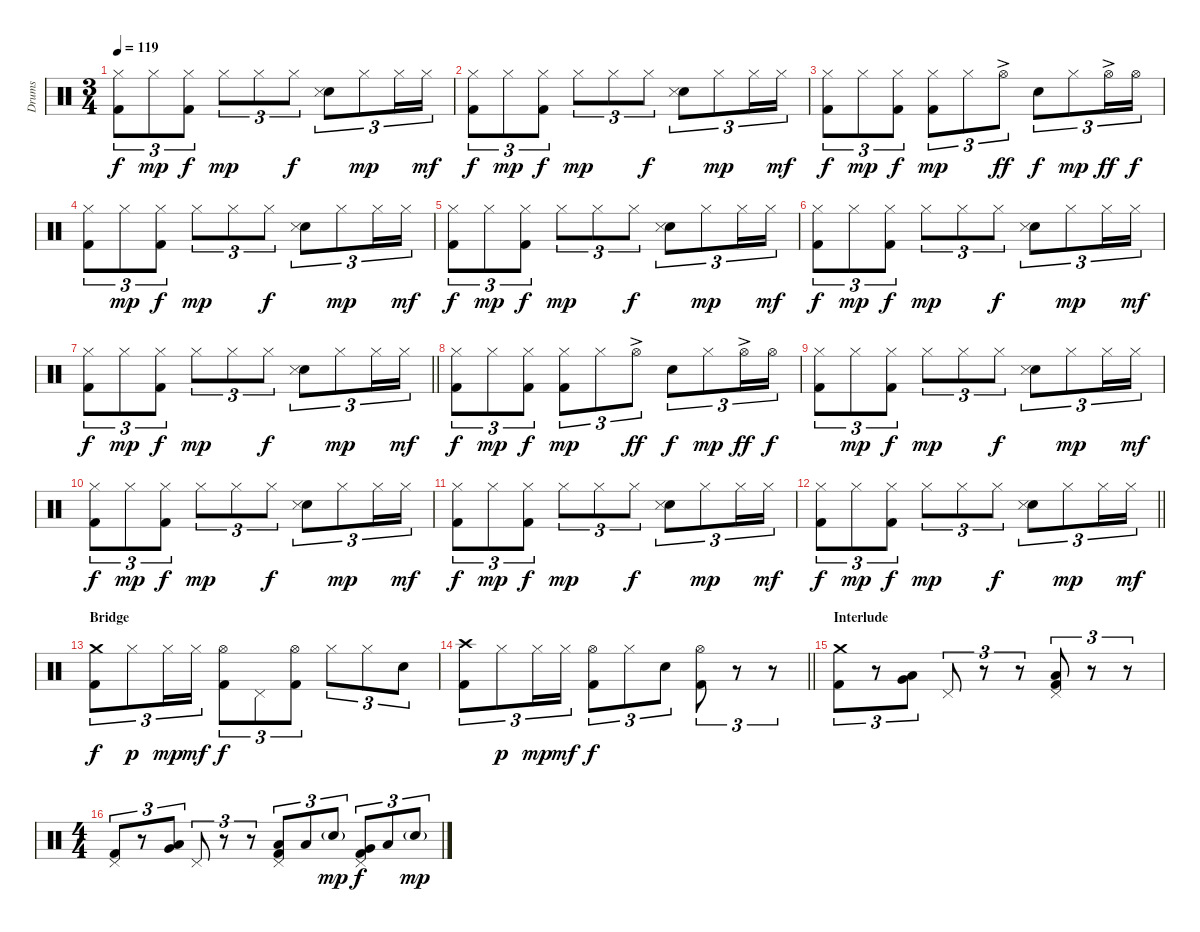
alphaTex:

\track ("Drums" "Drums") {instrument percussion}
\staff {score}
\articulation defaults
\ts (3 4)
\tempo 119
\clef neutral
\ks c
("Hi-Hat (closed)" "Kick (hit) 2").8{tu (3 2) dy f} "Hi-Hat (closed)".8{tu (3 2) dy mp} ("Hi-Hat (closed)" "Kick (hit) 2").8{tu (3 2) dy f} "Hi-Hat (closed)".8{tu (3 2) dy mp} "Hi-Hat (closed)".8{tu (3 2)} "Hi-Hat (closed)".8{tu (3 2) dy f} ("Electric Snare (hit)" "Snare (side stick) 3").8{tu (3 2)} "Hi-Hat (closed)".8{tu (3 2) dy mp} "Hi-Hat (closed)".16{tu (3 2)} "Hi-Hat (closed)".16{tu (3 2) dy mf} |
("Hi-Hat (closed)" "Kick (hit) 2").8{tu (3 2) dy f} "Hi-Hat (closed)".8{tu (3 2) dy mp} ("Hi-Hat (closed)" "Kick (hit) 2").8{tu (3 2) dy f} "Hi-Hat (closed)".8{tu (3 2) dy mp} "Hi-Hat (closed)".8{tu (3 2)} "Hi-Hat (closed)".8{tu (3 2) dy f} ("Electric Snare (hit)" "Snare (side stick) 3").8{tu (3 2)} "Hi-Hat (closed)".8{tu (3 2) dy mp} "Hi-Hat (closed)".16{tu (3 2)} "Hi-Hat (closed)".16{tu (3 2) dy mf} |
("Hi-Hat (closed)" "Kick (hit) 2").8{tu (3 2) dy f} "Hi-Hat (closed)".8{tu (3 2) dy mp} ("Hi-Hat (closed)" "Kick (hit) 2").8{tu (3 2) dy f} ("Hi-Hat (closed)" "Kick (hit) 2").8{tu (3 2) dy mp} "Hi-Hat (closed)".8{tu (3 2)} "Hi-Hat (open)"{ac}.8{tu (3 2) dy ff} "Electric Snare (hit)".8{tu (3 2) dy f} "Hi-Hat (closed)".8{tu (3 2) dy mp} "Hi-Hat (open)"{ac}.16{tu (3 2) dy ff} "Hi-Hat (open)".16{tu (3 2) dy f} |
("Hi-Hat (closed)" "Kick (hit) 2").8{tu (3 2)} "Hi-Hat (closed)".8{tu (3 2) dy mp} ("Hi-Hat (closed)" "Kick (hit) 2").8{tu (3 2) dy f} "Hi-Hat (closed)".8{tu (3 2) dy mp} "Hi-Hat (closed)".8{tu (3 2)} "Hi-Hat (closed)".8{tu (3 2) dy f} ("Electric Snare (hit)" "Snare (side stick) 3").8{tu (3 2)} "Hi-Hat (closed)".8{tu (3 2) dy mp} "Hi-Hat (closed)".16{tu (3 2)} "Hi-Hat (closed)".16{tu (3 2) dy mf} |
("Hi-Hat (closed)" "Kick (hit) 2").8{tu (3 2) dy f} "Hi-Hat (closed)".8{tu (3 2) dy mp} ("Hi-Hat (closed)" "Kick (hit) 2").8{tu (3 2) dy f} "Hi-Hat (closed)".8{tu (3 2) dy mp} "Hi-Hat (closed)".8{tu (3 2)} "Hi-Hat (closed)".8{tu (3 2) dy f} ("Electric Snare (hit)" "Snare (side stick) 3").8{tu (3 2)} "Hi-Hat (closed)".8{tu (3 2) dy mp} "Hi-Hat (closed)".16{tu (3 2)} "Hi-Hat (closed)".16{tu (3 2) dy mf} |
("Hi-Hat (closed)" "Kick (hit) 2").8{tu (3 2) dy f} "Hi-Hat (closed)".8{tu (3 2) dy mp} ("Hi-Hat (closed)" "Kick (hit) 2").8{tu (3 2) dy f} "Hi-Hat (closed)".8{tu (3 2) dy mp} "Hi-Hat (closed)".8{tu (3 2)} "Hi-Hat (closed)".8{tu (3 2) dy f} ("Electric Snare (hit)" "Snare (side stick) 3").8{tu (3 2)} "Hi-Hat (closed)".8{tu (3 2) dy mp} "Hi-Hat (closed)".16{tu (3 2)} "Hi-Hat (closed)".16{tu (3 2) dy mf} |
\barLineRight lightlight
("Hi-Hat (closed)" "Kick (hit) 2").8{tu (3 2) dy f} "Hi-Hat (closed)".8{tu (3 2) dy mp} ("Hi-Hat (closed)" "Kick (hit) 2").8{tu (3 2) dy f} "Hi-Hat (closed)".8{tu (3 2) dy mp} "Hi-Hat (closed)".8{tu (3 2)} "Hi-Hat (closed)".8{tu (3 2) dy f} ("Electric Snare (hit)" "Snare (side stick) 3").8{tu (3 2)} "Hi-Hat (closed)".8{tu (3 2) dy mp} "Hi-Hat (closed)".16{tu (3 2)} "Hi-Hat (closed)".16{tu (3 2) dy mf} |
("Hi-Hat (closed)" "Kick (hit) 2").8{tu (3 2) dy f} "Hi-Hat (closed)".8{tu (3 2) dy mp} ("Hi-Hat (closed)" "Kick (hit) 2").8{tu (3 2) dy f} ("Hi-Hat (closed)" "Kick (hit) 2").8{tu (3 2) dy mp} "Hi-Hat (closed)".8{tu (3 2)} "Hi-Hat (open)"{ac}.8{tu (3 2) dy ff} "Electric Snare (hit)".8{tu (3 2) dy f} "Hi-Hat (closed)".8{tu (3 2) dy mp} "Hi-Hat (open)"{ac}.16{tu (3 2) dy ff} "Hi-Hat (open)".16{tu (3 2) dy f} |
("Hi-Hat (closed)" "Kick (hit) 2").8{tu (3 2)} "Hi-Hat (closed)".8{tu (3 2) dy mp} ("Hi-Hat (closed)" "Kick (hit) 2").8{tu (3 2) dy f} "Hi-Hat (closed)".8{tu (3 2) dy mp} "Hi-Hat (closed)".8{tu (3 2)} "Hi-Hat (closed)".8{tu (3 2) dy f} ("Electric Snare (hit)" "Snare (side stick) 3").8{tu (3 2)} "Hi-Hat (closed)".8{tu (3 2) dy mp} "Hi-Hat (closed)".16{tu (3 2)} "Hi-Hat (closed)".16{tu (3 2) dy mf} |
("Hi-Hat (closed)" "Kick (hit) 2").8{tu (3 2) dy f} "Hi-Hat (closed)".8{tu (3 2) dy mp} ("Hi-Hat (closed)" "Kick (hit) 2").8{tu (3 2) dy f} "Hi-Hat (closed)".8{tu (3 2) dy mp} "Hi-Hat (closed)".8{tu (3 2)} "Hi-Hat (closed)".8{tu (3 2) dy f} ("Electric Snare (hit)" "Snare (side stick) 3").8{tu (3 2)} "Hi-Hat (closed)".8{tu (3 2) dy mp} "Hi-Hat (closed)".16{tu (3 2)} "Hi-Hat (closed)".16{tu (3 2) dy mf} |
("Hi-Hat (closed)" "Kick (hit) 2").8{tu (3 2) dy f} "Hi-Hat (closed)".8{tu (3 2) dy mp} ("Hi-Hat (closed)" "Kick (hit) 2").8{tu (3 2) dy f} "Hi-Hat (closed)".8{tu (3 2) dy mp} "Hi-Hat (closed)".8{tu (3 2)} "Hi-Hat (closed)".8{tu (3 2) dy f} ("Electric Snare (hit)" "Snare (side stick) 3").8{tu (3 2)} "Hi-Hat (closed)".8{tu (3 2) dy mp} "Hi-Hat (closed)".16{tu (3 2)} "Hi-Hat (closed)".16{tu (3 2) dy mf} |
\barLineRight lightlight
("Hi-Hat (closed)" "Kick (hit) 2").8{tu (3 2) dy f} "Hi-Hat (closed)".8{tu (3 2) dy mp} ("Hi-Hat (closed)" "Kick (hit) 2").8{tu (3 2) dy f} "Hi-Hat (closed)".8{tu (3 2) dy mp} "Hi-Hat (closed)".8{tu (3 2)} "Hi-Hat (closed)".8{tu (3 2) dy f} ("Electric Snare (hit)" "Snare (side stick) 3").8{tu (3 2)} "Hi-Hat (closed)".8{tu (3 2) dy mp} "Hi-Hat (closed)".16{tu (3 2)} "Hi-Hat (closed)".16{tu (3 2) dy mf} |
\section ("" "Bridge")
("Crash medium (hit)" "Kick (hit) 2").8{tu (3 2) dy f} "Hi-Hat (closed)".8{tu (3 2) dy p} "Hi-Hat (closed)".16{tu (3 2) dy mp} "Hi-Hat (closed)".16{tu (3 2) dy mf} ("Hi-Hat (open)" "Kick (hit) 2").8{tu (3 2) dy f} "Pedal Hi-Hat (hit)".8{tu (3 2)} ("Hi-Hat (open)" "Kick (hit) 2").8{tu (3 2)} "Hi-Hat (closed)".8{tu (3 2)} "Hi-Hat (closed)".8{tu (3 2)} "Electric Snare (hit)".8{tu (3 2)} |
\barLineRight lightlight
("Crash high (hit)" "Kick (hit) 2").8{tu (3 2)} "Hi-Hat (closed)".8{tu (3 2) dy p} "Hi-Hat (closed)".16{tu (3 2) dy mp} "Hi-Hat (closed)".16{tu (3 2) dy mf} ("Hi-Hat (open)" "Kick (hit) 2").8{tu (3 2) dy f} "Hi-Hat (closed)".8{tu (3 2)} "Electric Snare (hit)".8{tu (3 2)} ("Hi-Hat (open)" "Kick (hit) 2").8{tu (3 2)} r.8{tu (3 2)} r.8{tu (3 2)} |
\section ("" "Interlude")
("Crash medium (hit)" "Kick (hit) 2").8{tu (3 2)} r.8{tu (3 2)} ("Very Low Tom (hit)" "Low Tom (hit)").8{tu (3 2)} "Pedal Hi-Hat (hit)".8{tu (3 2)} r.8{tu (3 2)} r.8{tu (3 2)} ("Pedal Hi-Hat (hit)" "Low Tom (hit)" "Kick (hit) 2").8{tu (3 2)} r.8{tu (3 2)} r.8{tu (3 2)} |
\ts (4 4)
("Pedal Hi-Hat (hit)" "Kick (hit) 2").8{tu (3 2)} r.8{tu (3 2)} ("Very Low Tom (hit)" "Low Tom (hit)").8{tu (3 2)} "Pedal Hi-Hat (hit)".8{tu (3 2)} r.8{tu (3 2)} r.8{tu (3 2)} ("Pedal Hi-Hat (hit)" "Low Tom (hit)" "Kick (hit) 2").8{tu (3 2)} "Low Tom (hit)".8{tu (3 2)} "Electric Snare (hit)"{g}.8{tu (3 2) dy mp} ("Pedal Hi-Hat (hit)" "Very Low Tom (hit)" "Kick (hit) 2").8{tu (3 2) dy f} "Low Tom (hit)".8{tu (3 2)} "Electric Snare (hit)"{g}.8{tu (3 2) dy mp}
